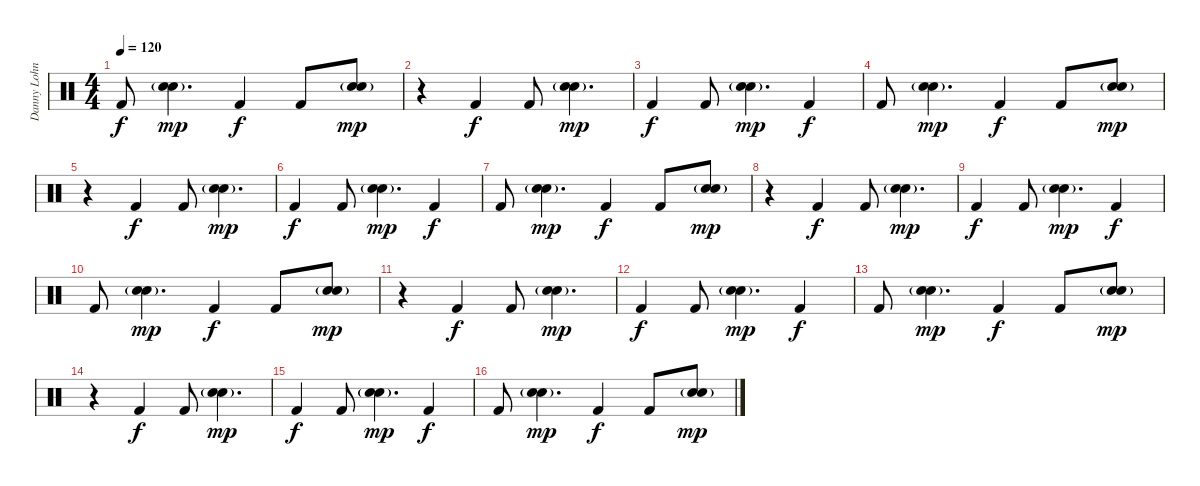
\track ("Danny Lohner" "Danny Lohn") {instrument percussion}
\staff {score}
\articulation defaults
\ts (4 4)
\tempo 120
\clef neutral
\ks c "Kick (hit) 2".8{dy f}
("Hand Clap (hit)"{g} "Electric Snare (hit)"{g}).4{d dy mp} "Kick (hit) 2".4{dy f} "Kick (hit) 2".8 ("Hand Clap (hit)"{g} "Electric Snare (hit)"{g}).8{dy mp} |
r.4 "Kick (hit) 2".4{dy f} "Kick (hit) 2".8 ("Hand Clap (hit)"{g} "Electric Snare (hit)"{g}).4{d dy mp} |
"Kick (hit) 2".4{dy f} "Kick (hit) 2".8 ("Hand Clap (hit)"{g} "Electric Snare (hit)"{g}).4{d dy mp} "Kick (hit) 2".4{dy f} |
"Kick (hit) 2".8 ("Hand Clap (hit)"{g} "Electric Snare (hit)"{g}).4{d dy mp} "Kick (hit) 2".4{dy f} "Kick (hit) 2".8 ("Hand Clap (hit)"{g} "Electric Snare (hit)"{g}).8{dy mp} |
r.4 "Kick (hit) 2".4{dy f} "Kick (hit) 2".8 ("Hand Clap (hit)"{g} "Electric Snare (hit)"{g}).4{d dy mp} |
"Kick (hit) 2".4{dy f} "Kick (hit) 2".8 ("Hand Clap (hit)"{g} "Electric Snare (hit)"{g}).4{d dy mp} "Kick (hit) 2".4{dy f} |
"Kick (hit) 2".8 ("Hand Clap (hit)"{g} "Electric Snare (hit)"{g}).4{d dy mp} "Kick (hit) 2".4{dy f} "Kick (hit) 2".8 ("Hand Clap (hit)"{g} "Electric Snare (hit)"{g}).8{dy mp} |
r.4 "Kick (hit) 2".4{dy f} "Kick (hit) 2".8 ("Hand Clap (hit)"{g} "Electric Snare (hit)"{g}).4{d dy mp} |
"Kick (hit) 2".4{dy f} "Kick (hit) 2".8 ("Hand Clap (hit)"{g} "Electric Snare (hit)"{g}).4{d dy mp} "Kick (hit) 2".4{dy f} |
"Kick (hit) 2".8 ("Hand Clap (hit)"{g} "Electric Snare (hit)"{g}).4{d dy mp} "Kick (hit) 2".4{dy f} "Kick (hit) 2".8 ("Hand Clap (hit)"{g} "Electric Snare (hit)"{g}).8{dy mp} |
r.4 "Kick (hit) 2".4{dy f} "Kick (hit) 2".8 ("Hand Clap (hit)"{g} "Electric Snare (hit)"{g}).4{d dy mp} |
"Kick (hit) 2".4{dy f} "Kick (hit) 2".8 ("Hand Clap (hit)"{g} "Electric Snare (hit)"{g}).4{d dy mp} "Kick (hit) 2".4{dy f} |
"Kick (hit) 2".8 ("Hand Clap (hit)"{g} "Electric Snare (hit)"{g}).4{d dy mp} "Kick (hit) 2".4{dy f} "Kick (hit) 2".8 ("Hand Clap (hit)"{g} "Electric Snare (hit)"{g}).8{dy mp} |
r.4 "Kick (hit) 2".4{dy f} "Kick (hit) 2".8 ("Hand Clap (hit)"{g} "Electric Snare (hit)"{g}).4{d dy mp} |
"Kick (hit) 2".4{dy f} "Kick (hit) 2".8 ("Hand Clap (hit)"{g} "Electric Snare (hit)"{g}).4{d dy mp} "Kick (hit) 2".4{dy f} |
"Kick (hit) 2".8 ("Hand Clap (hit)"{g} "Electric Snare (hit)"{g}).4{d dy mp} "Kick (hit) 2".4{dy f} "Kick (hit) 2".8 ("Hand Clap (hit)"{g} "Electric Snare (hit)"{g}).8{dy mp}
